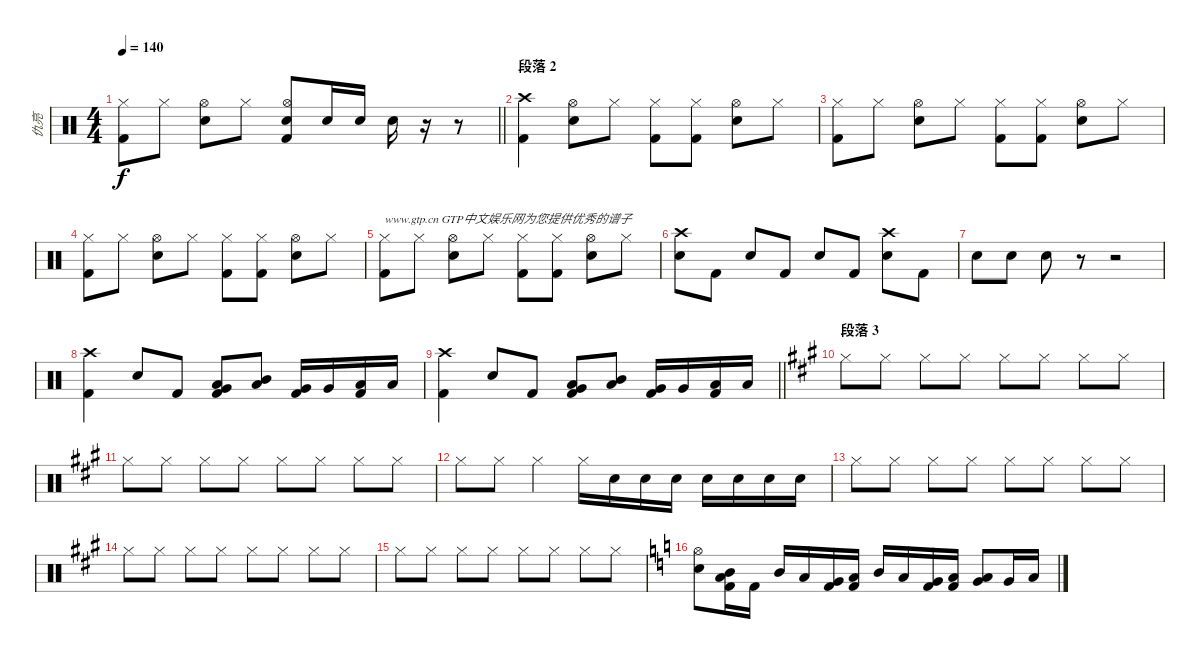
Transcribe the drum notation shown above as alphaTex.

\track ("仇亮" "仇亮") {instrument percussion}
\staff {score}
\articulation defaults
\ts (4 4)
\tempo 140
\clef neutral
\barLineRight lightlight
\ks c
("Hi-Hat (closed)" "Kick (hit) 2").8{dy f} "Hi-Hat (closed)".8 ("Hi-Hat (open)" "Electric Snare (hit)").8 "Hi-Hat (closed)".8 ("Hi-Hat (open)" "Electric Snare (hit)" "Kick (hit) 2").8 "Electric Snare (hit)".16 "Electric Snare (hit)".16 "Electric Snare (hit)".16 r.16 r.8 |
\section ("" "段落 2")
("Crash high (hit)" "Kick (hit) 2").4 ("Hi-Hat (open)" "Electric Snare (hit)").8 "Hi-Hat (closed)".8 ("Hi-Hat (closed)" "Kick (hit) 2").8 ("Hi-Hat (closed)" "Kick (hit) 2").8 ("Hi-Hat (open)" "Electric Snare (hit)").8 "Hi-Hat (closed)".8 |
("Hi-Hat (closed)" "Kick (hit) 2").8 "Hi-Hat (closed)".8 ("Hi-Hat (open)" "Electric Snare (hit)").8 "Hi-Hat (closed)".8 ("Hi-Hat (closed)" "Kick (hit) 2").8 ("Hi-Hat (closed)" "Kick (hit) 2").8 ("Hi-Hat (open)" "Electric Snare (hit)").8 "Hi-Hat (closed)".8 |
("Hi-Hat (closed)" "Kick (hit) 2").8 "Hi-Hat (closed)".8 ("Hi-Hat (open)" "Electric Snare (hit)").8 "Hi-Hat (closed)".8 ("Hi-Hat (closed)" "Kick (hit) 2").8 ("Hi-Hat (closed)" "Kick (hit) 2").8 ("Hi-Hat (open)" "Electric Snare (hit)").8 "Hi-Hat (closed)".8 |
("Hi-Hat (closed)" "Kick (hit) 2").8{txt "www.gtp.cn GTP中文娱乐网为您提供优秀的谱子"} "Hi-Hat (closed)".8 ("Hi-Hat (open)" "Electric Snare (hit)").8 "Hi-Hat (closed)".8 ("Hi-Hat (closed)" "Kick (hit) 2").8 ("Hi-Hat (closed)" "Kick (hit) 2").8 ("Hi-Hat (open)" "Electric Snare (hit)").8 "Hi-Hat (closed)".8 |
("Crash high (hit)" "Electric Snare (hit)").8 "Kick (hit) 2".8 "Electric Snare (hit)".8 "Kick (hit) 2".8 "Electric Snare (hit)".8 "Kick (hit) 2".8 ("Crash high (hit)" "Electric Snare (hit)").8 "Kick (hit) 2".8 |
"Electric Snare (hit)".8 "Electric Snare (hit)".8 "Electric Snare (hit)".8 r.8 r.2 |
("Crash high (hit)" "Kick (hit) 2").4 "Electric Snare (hit)".8 "Kick (hit) 2".8 ("Low Tom (hit)" "Very Low Tom (hit)" "Kick (hit) 2").8 ("Mid Tom (hit)" "Low Tom (hit)").8 ("Very Low Tom (hit)" "Kick (hit) 2").16 "Very Low Tom (hit)".16 ("Low Floor Tom (hit)" "Kick (hit) 2").16 "Low Floor Tom (hit)".16 |
\barLineRight lightlight
("Crash high (hit)" "Kick (hit) 2").4 "Electric Snare (hit)".8 "Kick (hit) 2".8 ("Low Tom (hit)" "Very Low Tom (hit)" "Kick (hit) 2").8 ("Mid Tom (hit)" "Low Tom (hit)").8 ("Very Low Tom (hit)" "Kick (hit) 2").16 "Very Low Tom (hit)".16 ("Low Floor Tom (hit)" "Kick (hit) 2").16 "Low Floor Tom (hit)".16 |
\section ("" "段落 3")
\ks a "Hi-Hat (closed)".8 "Hi-Hat (closed)".8 "Hi-Hat (closed)".8 "Hi-Hat (closed)".8 "Hi-Hat (closed)".8 "Hi-Hat (closed)".8 "Hi-Hat (closed)".8 "Hi-Hat (closed)".8
|
"Hi-Hat (closed)".8 "Hi-Hat (closed)".8 "Hi-Hat (closed)".8 "Hi-Hat (closed)".8 "Hi-Hat (closed)".8 "Hi-Hat (closed)".8 "Hi-Hat (closed)".8 "Hi-Hat (closed)".8 |
"Hi-Hat (closed)".8 "Hi-Hat (closed)".8 "Hi-Hat (closed)".4 "Hi-Hat (closed)".16 "Snare (hit) 2".16 "Snare (hit) 2".16 "Snare (hit) 2".16 "Snare (hit) 2".16 "Snare (hit) 2".16 "Snare (hit) 2".16 "Snare (hit) 2".16 |
"Hi-Hat (closed)".8 "Hi-Hat (closed)".8 "Hi-Hat (closed)".8 "Hi-Hat (closed)".8 "Hi-Hat (closed)".8 "Hi-Hat (closed)".8 "Hi-Hat (closed)".8 "Hi-Hat (closed)".8 |
"Hi-Hat (closed)".8 "Hi-Hat (closed)".8 "Hi-Hat (closed)".8 "Hi-Hat (closed)".8 "Hi-Hat (closed)".8 "Hi-Hat (closed)".8 "Hi-Hat (closed)".8 "Hi-Hat (closed)".8 |
"Hi-Hat (closed)".8 "Hi-Hat (closed)".8 "Hi-Hat (closed)".8 "Hi-Hat (closed)".8 "Hi-Hat (closed)".8 "Hi-Hat (closed)".8 "Hi-Hat (closed)".8 "Hi-Hat (closed)".8 |
\ks c
("Hi-Hat (open)" "Electric Snare (hit)").8 ("Mid Tom (hit)" "Low Tom (hit)" "Kick (hit) 2").16 "Kick (hit) 2".16 "Mid Tom (hit)".16 "Low Tom (hit)".16 ("Very Low Tom (hit)" "Kick (hit) 2").16 ("Low Floor Tom (hit)" "Kick (hit) 2").16 "Mid Tom (hit)".16 "Low Tom (hit)".16 ("Very Low Tom (hit)" "Kick (hit) 2").16 ("Low Floor Tom (hit)" "Kick (hit) 2").16 ("Low Tom (hit)" "Very Low Tom (hit)").8 "Very Low Tom (hit)".16 "Low Floor Tom (hit)".16
